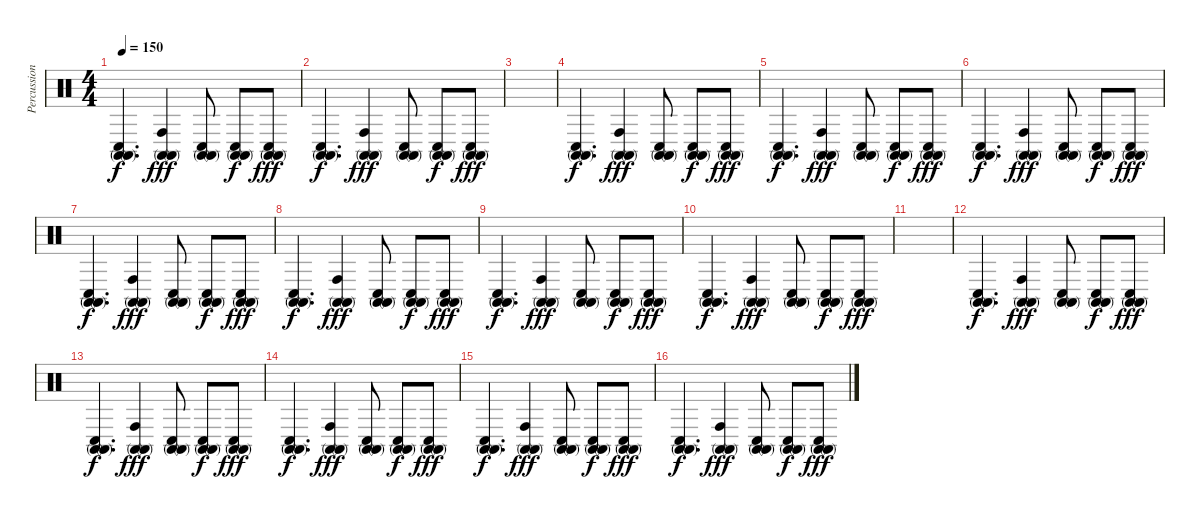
\track ("Percussion2" "Percussion") {instrument percussion}
\staff {score}
\articulation defaults
\ts (4 4)
\tempo 150
\clef neutral
\ks aminor
("Conga high (mute)" "Conga high (mute)" "Conga low (hit)").4{d dy f} ("Conga high (mute)" "Conga high (mute)" "Conga high (hit)").4{dy fff} ("Conga high (mute)" "Conga high (mute)" "Conga low (hit)").8 ("Conga high (mute)" "Conga high (mute)" "Conga low (hit)").8{dy f} ("Conga high (mute)" "Conga high (mute)" "Conga low (hit)").8{dy fff} |
("Conga high (mute)" "Conga high (mute)" "Conga low (hit)").4{d dy f} ("Conga high (mute)" "Conga high (mute)" "Conga high (hit)").4{dy fff} ("Conga high (mute)" "Conga high (mute)" "Conga low (hit)").8 ("Conga high (mute)" "Conga high (mute)" "Conga low (hit)").8{dy f} ("Conga high (mute)" "Conga high (mute)" "Conga low (hit)").8{dy fff} |
|
("Conga high (mute)" "Conga high (mute)" "Conga low (hit)").4{d dy f} ("Conga high (mute)" "Conga high (mute)" "Conga high (hit)").4{dy fff} ("Conga high (mute)" "Conga high (mute)" "Conga low (hit)").8 ("Conga high (mute)" "Conga high (mute)" "Conga low (hit)").8{dy f} ("Conga high (mute)" "Conga high (mute)" "Conga low (hit)").8{dy fff} |
("Conga high (mute)" "Conga high (mute)" "Conga low (hit)").4{d dy f} ("Conga high (mute)" "Conga high (mute)" "Conga high (hit)").4{dy fff} ("Conga high (mute)" "Conga high (mute)" "Conga low (hit)").8 ("Conga high (mute)" "Conga high (mute)" "Conga low (hit)").8{dy f} ("Conga high (mute)" "Conga high (mute)" "Conga low (hit)").8{dy fff} |
("Conga high (mute)" "Conga high (mute)" "Conga low (hit)").4{d dy f} ("Conga high (mute)" "Conga high (mute)" "Conga high (hit)").4{dy fff} ("Conga high (mute)" "Conga high (mute)" "Conga low (hit)").8 ("Conga high (mute)" "Conga high (mute)" "Conga low (hit)").8{dy f} ("Conga high (mute)" "Conga high (mute)" "Conga low (hit)").8{dy fff} |
("Conga high (mute)" "Conga high (mute)" "Conga low (hit)").4{d dy f} ("Conga high (mute)" "Conga high (mute)" "Conga high (hit)").4{dy fff} ("Conga high (mute)" "Conga high (mute)" "Conga low (hit)").8 ("Conga high (mute)" "Conga high (mute)" "Conga low (hit)").8{dy f} ("Conga high (mute)" "Conga high (mute)" "Conga low (hit)").8{dy fff} |
("Conga high (mute)" "Conga high (mute)" "Conga low (hit)").4{d dy f} ("Conga high (mute)" "Conga high (mute)" "Conga high (hit)").4{dy fff} ("Conga high (mute)" "Conga high (mute)" "Conga low (hit)").8 ("Conga high (mute)" "Conga high (mute)" "Conga low (hit)").8{dy f} ("Conga high (mute)" "Conga high (mute)" "Conga low (hit)").8{dy fff} |
("Conga high (mute)" "Conga high (mute)" "Conga low (hit)").4{d dy f} ("Conga high (mute)" "Conga high (mute)" "Conga high (hit)").4{dy fff} ("Conga high (mute)" "Conga high (mute)" "Conga low (hit)").8 ("Conga high (mute)" "Conga high (mute)" "Conga low (hit)").8{dy f} ("Conga high (mute)" "Conga high (mute)" "Conga low (hit)").8{dy fff} |
("Conga high (mute)" "Conga high (mute)" "Conga low (hit)").4{d dy f} ("Conga high (mute)" "Conga high (mute)" "Conga high (hit)").4{dy fff} ("Conga high (mute)" "Conga high (mute)" "Conga low (hit)").8 ("Conga high (mute)" "Conga high (mute)" "Conga low (hit)").8{dy f} ("Conga high (mute)" "Conga high (mute)" "Conga low (hit)").8{dy fff} |
|
("Conga high (mute)" "Conga high (mute)" "Conga low (hit)").4{d dy f} ("Conga high (mute)" "Conga high (mute)" "Conga high (hit)").4{dy fff} ("Conga high (mute)" "Conga high (mute)" "Conga low (hit)").8 ("Conga high (mute)" "Conga high (mute)" "Conga low (hit)").8{dy f} ("Conga high (mute)" "Conga high (mute)" "Conga low (hit)").8{dy fff} |
("Conga high (mute)" "Conga high (mute)" "Conga low (hit)").4{d dy f} ("Conga high (mute)" "Conga high (mute)" "Conga high (hit)").4{dy fff} ("Conga high (mute)" "Conga high (mute)" "Conga low (hit)").8 ("Conga high (mute)" "Conga high (mute)" "Conga low (hit)").8{dy f} ("Conga high (mute)" "Conga high (mute)" "Conga low (hit)").8{dy fff} |
("Conga high (mute)" "Conga high (mute)" "Conga low (hit)").4{d dy f} ("Conga high (mute)" "Conga high (mute)" "Conga high (hit)").4{dy fff} ("Conga high (mute)" "Conga high (mute)" "Conga low (hit)").8 ("Conga high (mute)" "Conga high (mute)" "Conga low (hit)").8{dy f} ("Conga high (mute)" "Conga high (mute)" "Conga low (hit)").8{dy fff} |
("Conga high (mute)" "Conga high (mute)" "Conga low (hit)").4{d dy f} ("Conga high (mute)" "Conga high (mute)" "Conga high (hit)").4{dy fff} ("Conga high (mute)" "Conga high (mute)" "Conga low (hit)").8 ("Conga high (mute)" "Conga high (mute)" "Conga low (hit)").8{dy f} ("Conga high (mute)" "Conga high (mute)" "Conga low (hit)").8{dy fff} |
("Conga high (mute)" "Conga high (mute)" "Conga low (hit)").4{d dy f} ("Conga high (mute)" "Conga high (mute)" "Conga high (hit)").4{dy fff} ("Conga high (mute)" "Conga high (mute)" "Conga low (hit)").8 ("Conga high (mute)" "Conga high (mute)" "Conga low (hit)").8{dy f} ("Conga high (mute)" "Conga high (mute)" "Conga low (hit)").8{dy fff}
